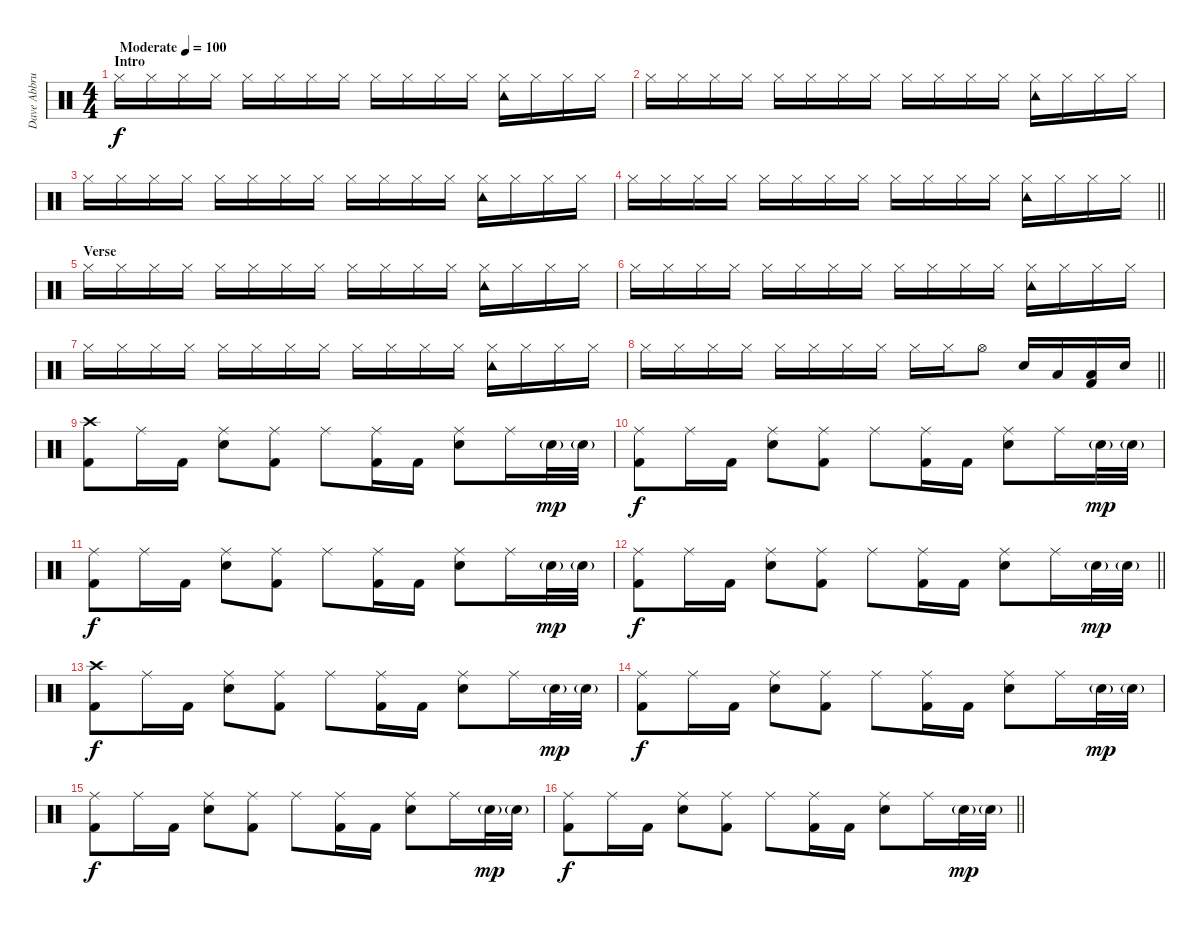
\track ("Dave Abbruzzese" "Dave Abbru") {instrument percussion}
\staff {score}
\articulation defaults
\ts (4 4)
\section ("" "Intro")
\tempo (100 "Moderate")
\clef neutral
\ks c "Hi-Hat (closed)".16{dy f} "Hi-Hat (closed)".16 "Hi-Hat (closed)".16 "Hi-Hat (closed)".16 "Hi-Hat (closed)".16 "Hi-Hat (closed)".16 "Hi-Hat (closed)".16 "Hi-Hat (closed)".16 "Hi-Hat (closed)".16 "Hi-Hat (closed)".16 "Hi-Hat (closed)".16 "Hi-Hat (closed)".16
("Hi-Hat (closed)" "Tambourine (hit)").16 "Hi-Hat (closed)".16 "Hi-Hat (closed)".16 "Hi-Hat (closed)".16 |
"Hi-Hat (closed)".16 "Hi-Hat (closed)".16 "Hi-Hat (closed)".16 "Hi-Hat (closed)".16 "Hi-Hat (closed)".16 "Hi-Hat (closed)".16 "Hi-Hat (closed)".16 "Hi-Hat (closed)".16 "Hi-Hat (closed)".16 "Hi-Hat (closed)".16 "Hi-Hat (closed)".16 "Hi-Hat (closed)".16 ("Hi-Hat (closed)" "Tambourine (hit)").16 "Hi-Hat (closed)".16 "Hi-Hat (closed)".16 "Hi-Hat (closed)".16 |
"Hi-Hat (closed)".16 "Hi-Hat (closed)".16 "Hi-Hat (closed)".16 "Hi-Hat (closed)".16 "Hi-Hat (closed)".16 "Hi-Hat (closed)".16 "Hi-Hat (closed)".16 "Hi-Hat (closed)".16 "Hi-Hat (closed)".16 "Hi-Hat (closed)".16 "Hi-Hat (closed)".16 "Hi-Hat (closed)".16 ("Hi-Hat (closed)" "Tambourine (hit)").16 "Hi-Hat (closed)".16 "Hi-Hat (closed)".16 "Hi-Hat (closed)".16 |
\barLineRight lightlight "Hi-Hat (closed)".16 "Hi-Hat (closed)".16 "Hi-Hat (closed)".16 "Hi-Hat (closed)".16 "Hi-Hat (closed)".16 "Hi-Hat (closed)".16 "Hi-Hat (closed)".16 "Hi-Hat (closed)".16 "Hi-Hat (closed)".16 "Hi-Hat (closed)".16 "Hi-Hat (closed)".16 "Hi-Hat (closed)".16
("Hi-Hat (closed)" "Tambourine (hit)").16 "Hi-Hat (closed)".16 "Hi-Hat (closed)".16 "Hi-Hat (closed)".16 |
\section ("" "Verse")
"Hi-Hat (closed)".16 "Hi-Hat (closed)".16 "Hi-Hat (closed)".16 "Hi-Hat (closed)".16 "Hi-Hat (closed)".16 "Hi-Hat (closed)".16 "Hi-Hat (closed)".16 "Hi-Hat (closed)".16 "Hi-Hat (closed)".16 "Hi-Hat (closed)".16 "Hi-Hat (closed)".16 "Hi-Hat (closed)".16 ("Hi-Hat (closed)" "Tambourine (hit)").16 "Hi-Hat (closed)".16 "Hi-Hat (closed)".16 "Hi-Hat (closed)".16 |
"Hi-Hat (closed)".16 "Hi-Hat (closed)".16 "Hi-Hat (closed)".16 "Hi-Hat (closed)".16 "Hi-Hat (closed)".16 "Hi-Hat (closed)".16 "Hi-Hat (closed)".16 "Hi-Hat (closed)".16 "Hi-Hat (closed)".16 "Hi-Hat (closed)".16 "Hi-Hat (closed)".16 "Hi-Hat (closed)".16 ("Hi-Hat (closed)" "Tambourine (hit)").16 "Hi-Hat (closed)".16 "Hi-Hat (closed)".16 "Hi-Hat (closed)".16 |
"Hi-Hat (closed)".16 "Hi-Hat (closed)".16 "Hi-Hat (closed)".16 "Hi-Hat (closed)".16 "Hi-Hat (closed)".16 "Hi-Hat (closed)".16 "Hi-Hat (closed)".16 "Hi-Hat (closed)".16 "Hi-Hat (closed)".16 "Hi-Hat (closed)".16 "Hi-Hat (closed)".16 "Hi-Hat (closed)".16 ("Hi-Hat (closed)" "Tambourine (hit)").16 "Hi-Hat (closed)".16 "Hi-Hat (closed)".16 "Hi-Hat (closed)".16 |
\barLineRight lightlight "Hi-Hat (closed)".16 "Hi-Hat (closed)".16 "Hi-Hat (closed)".16 "Hi-Hat (closed)".16 "Hi-Hat (closed)".16 "Hi-Hat (closed)".16 "Hi-Hat (closed)".16 "Hi-Hat (closed)".16 "Hi-Hat (closed)".16 "Hi-Hat (closed)".16 "Hi-Hat (open)".8 "Electric Snare (hit)".16 "Low Tom (hit)".16
("Low Floor Tom (hit)" "Kick (hit) 2").16 "Electric Snare (hit)".16 |
("Crash high (hit)" "Kick (hit) 2").8 "Ride (middle)".16 "Kick (hit) 2".16 ("Ride (middle)" "Electric Snare (hit)").8 ("Ride (middle)" "Kick (hit) 2").8 "Ride (middle)".8 ("Ride (middle)" "Kick (hit) 2").16 "Kick (hit) 2".16 ("Ride (middle)" "Electric Snare (hit)").8 "Ride (middle)".16 "Electric Snare (hit)"{g}.32{dy mp} "Electric Snare (hit)"{g}.32 |
("Ride (middle)" "Kick (hit) 2").8{dy f} "Ride (middle)".16 "Kick (hit) 2".16 ("Ride (middle)" "Electric Snare (hit)").8 ("Ride (middle)" "Kick (hit) 2").8 "Ride (middle)".8 ("Ride (middle)" "Kick (hit) 2").16 "Kick (hit) 2".16 ("Ride (middle)" "Electric Snare (hit)").8 "Ride (middle)".16 "Electric Snare (hit)"{g}.32{dy mp} "Electric Snare (hit)"{g}.32 |
("Ride (middle)" "Kick (hit) 2").8{dy f} "Ride (middle)".16 "Kick (hit) 2".16 ("Ride (middle)" "Electric Snare (hit)").8 ("Ride (middle)" "Kick (hit) 2").8 "Ride (middle)".8 ("Ride (middle)" "Kick (hit) 2").16 "Kick (hit) 2".16 ("Ride (middle)" "Electric Snare (hit)").8 "Ride (middle)".16 "Electric Snare (hit)"{g}.32{dy mp} "Electric Snare (hit)"{g}.32 |
\barLineRight lightlight
("Ride (middle)" "Kick (hit) 2").8{dy f} "Ride (middle)".16 "Kick (hit) 2".16 ("Ride (middle)" "Electric Snare (hit)").8 ("Ride (middle)" "Kick (hit) 2").8 "Ride (middle)".8 ("Ride (middle)" "Kick (hit) 2").16 "Kick (hit) 2".16 ("Ride (middle)" "Electric Snare (hit)").8 "Ride (middle)".16 "Electric Snare (hit)"{g}.32{dy mp} "Electric Snare (hit)"{g}.32 |
("Crash high (hit)" "Kick (hit) 2").8{dy f} "Ride (middle)".16 "Kick (hit) 2".16 ("Ride (middle)" "Electric Snare (hit)").8 ("Ride (middle)" "Kick (hit) 2").8 "Ride (middle)".8 ("Ride (middle)" "Kick (hit) 2").16 "Kick (hit) 2".16 ("Ride (middle)" "Electric Snare (hit)").8 "Ride (middle)".16 "Electric Snare (hit)"{g}.32{dy mp} "Electric Snare (hit)"{g}.32 |
("Ride (middle)" "Kick (hit) 2").8{dy f} "Ride (middle)".16 "Kick (hit) 2".16 ("Ride (middle)" "Electric Snare (hit)").8 ("Ride (middle)" "Kick (hit) 2").8 "Ride (middle)".8 ("Ride (middle)" "Kick (hit) 2").16 "Kick (hit) 2".16 ("Ride (middle)" "Electric Snare (hit)").8 "Ride (middle)".16 "Electric Snare (hit)"{g}.32{dy mp} "Electric Snare (hit)"{g}.32 |
("Ride (middle)" "Kick (hit) 2").8{dy f} "Ride (middle)".16 "Kick (hit) 2".16 ("Ride (middle)" "Electric Snare (hit)").8 ("Ride (middle)" "Kick (hit) 2").8 "Ride (middle)".8 ("Ride (middle)" "Kick (hit) 2").16 "Kick (hit) 2".16 ("Ride (middle)" "Electric Snare (hit)").8 "Ride (middle)".16 "Electric Snare (hit)"{g}.32{dy mp} "Electric Snare (hit)"{g}.32 |
\barLineRight lightlight
("Ride (middle)" "Kick (hit) 2").8{dy f} "Ride (middle)".16 "Kick (hit) 2".16 ("Ride (middle)" "Electric Snare (hit)").8 ("Ride (middle)" "Kick (hit) 2").8 "Ride (middle)".8 ("Ride (middle)" "Kick (hit) 2").16 "Kick (hit) 2".16 ("Ride (middle)" "Electric Snare (hit)").8 "Ride (middle)".16 "Electric Snare (hit)"{g}.32{dy mp} "Electric Snare (hit)"{g}.32
